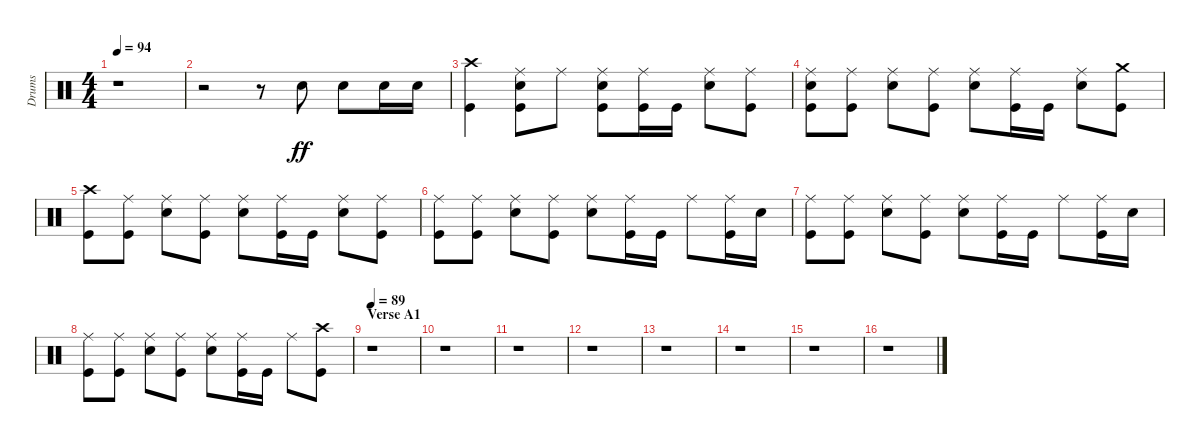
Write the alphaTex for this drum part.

\track ("Drums" "Drums") {instrument percussion}
\staff {score}
\articulation defaults
\ts (4 4)
\tempo 94
\clef neutral
\ks c
r.1{dy ff} |
r.2 r.8 "Electric Snare (hit)".8 "Electric Snare (hit)".8 "Electric Snare (hit)".16 "Electric Snare (hit)".16 |
("Crash high (hit)" "Kick (hit)").4 ("Ride (middle)" "Electric Snare (hit)" "Kick (hit)").8 "Ride (middle)".8 ("Ride (middle)" "Electric Snare (hit)" "Kick (hit)").8 ("Ride (middle)" "Kick (hit)").16 "Kick (hit)".16 ("Ride (middle)" "Electric Snare (hit)").8 ("Ride (middle)" "Kick (hit)").8 |
("Ride (middle)" "Electric Snare (hit)" "Kick (hit)").8 ("Ride (middle)" "Kick (hit)").8 ("Ride (middle)" "Electric Snare (hit)").8 ("Ride (middle)" "Kick (hit)").8 ("Ride (middle)" "Electric Snare (hit)").8 ("Ride (middle)" "Kick (hit)").16 "Kick (hit)".16 ("Ride (middle)" "Electric Snare (hit)").8 ("Crash medium (hit)" "Kick (hit)").8 |
("Crash high (hit)" "Kick (hit)").8 ("Ride (middle)" "Kick (hit)").8 ("Ride (middle)" "Electric Snare (hit)").8 ("Ride (middle)" "Kick (hit)").8 ("Ride (middle)" "Electric Snare (hit)").8 ("Ride (middle)" "Kick (hit)").16 "Kick (hit)".16 ("Ride (middle)" "Electric Snare (hit)").8 ("Ride (middle)" "Kick (hit)").8 |
("Ride (middle)" "Kick (hit)").8 ("Ride (middle)" "Kick (hit)").8 ("Ride (middle)" "Electric Snare (hit)").8 ("Ride (middle)" "Kick (hit)").8 ("Ride (middle)" "Electric Snare (hit)").8 ("Ride (middle)" "Kick (hit)").16 "Kick (hit)".16 "Ride (middle)".8 ("Ride (middle)" "Kick (hit)").16 "Electric Snare (hit)".16 |
("Ride (middle)" "Kick (hit)").8 ("Ride (middle)" "Kick (hit)").8 ("Ride (middle)" "Electric Snare (hit)").8 ("Ride (middle)" "Kick (hit)").8 ("Ride (middle)" "Electric Snare (hit)").8 ("Ride (middle)" "Kick (hit)").16 "Kick (hit)".16 "Ride (middle)".8 ("Ride (middle)" "Kick (hit)").16 "Electric Snare (hit)".16 |
("Ride (middle)" "Kick (hit)").8 ("Ride (middle)" "Kick (hit)").8 ("Ride (middle)" "Electric Snare (hit)").8 ("Ride (middle)" "Kick (hit)").8 ("Ride (middle)" "Electric Snare (hit)").8 ("Ride (middle)" "Kick (hit)").16 "Kick (hit)".16 "Ride (middle)".8 ("Crash high (hit)" "Kick (hit)").8 |
\section ("" "Verse A1")
\tempo 89
r.1 |
r.1 |
r.1 |
r.1 |
r.1 |
r.1 |
r.1 |
r.1
